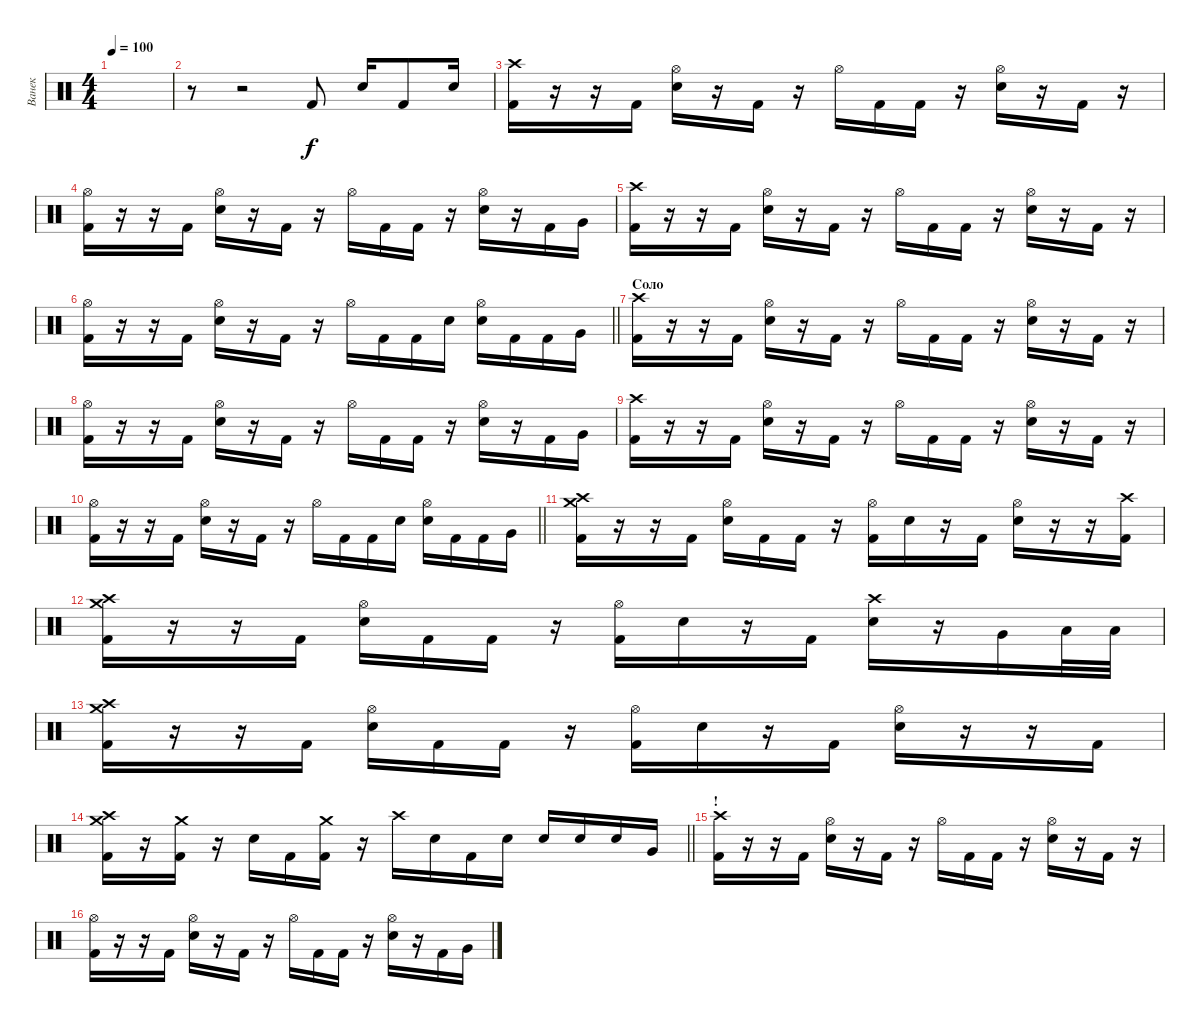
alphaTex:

\track ("Ванек" "Ванек") {instrument percussion}
\staff {score}
\articulation defaults
\ts (4 4)
\tempo 100
\clef neutral
\ks c
|
r.8 r.2 "Kick (hit) 2".8 "Snare (hit) 2".16 "Kick (hit) 2".8 "Snare (hit) 2".16 |
("Crash high (hit)" "Kick (hit) 2").16 r.16 r.16 "Kick (hit) 2".16 ("Hi-Hat (open)" "Snare (hit) 2").16 r.16 "Kick (hit) 2".16 r.16 "Hi-Hat (open)".16 "Kick (hit) 2".16 "Kick (hit) 2".16 r.16 ("Hi-Hat (open)" "Snare (hit) 2").16 r.16 "Kick (hit) 2".16 r.16 |
("Hi-Hat (open)" "Kick (hit) 2").16 r.16 r.16 "Kick (hit) 2".16 ("Hi-Hat (open)" "Snare (hit) 2").16 r.16 "Kick (hit) 2".16 r.16 "Hi-Hat (open)".16 "Kick (hit) 2".16 "Kick (hit) 2".16 r.16 ("Hi-Hat (open)" "Snare (hit) 2").16 r.16 "Kick (hit) 2".16 "Very Low Tom (hit)".16 |
("Crash high (hit)" "Kick (hit) 2").16 r.16 r.16 "Kick (hit) 2".16 ("Hi-Hat (open)" "Snare (hit) 2").16 r.16 "Kick (hit) 2".16 r.16 "Hi-Hat (open)".16 "Kick (hit) 2".16 "Kick (hit) 2".16 r.16 ("Hi-Hat (open)" "Snare (hit) 2").16 r.16 "Kick (hit) 2".16 r.16 |
\barLineRight lightlight
("Hi-Hat (open)" "Kick (hit) 2").16 r.16 r.16 "Kick (hit) 2".16 ("Hi-Hat (open)" "Snare (hit) 2").16 r.16 "Kick (hit) 2".16 r.16 "Hi-Hat (open)".16 "Kick (hit) 2".16 "Kick (hit) 2".16 "Snare (hit) 2".16 ("Hi-Hat (open)" "Snare (hit) 2").16 "Kick (hit) 2".16 "Kick (hit) 2".16 "Very Low Tom (hit)".16 |
\section ("" "Соло")
("Crash high (hit)" "Kick (hit) 2").16 r.16 r.16 "Kick (hit) 2".16 ("Hi-Hat (open)" "Snare (hit) 2").16 r.16 "Kick (hit) 2".16 r.16 "Hi-Hat (open)".16 "Kick (hit) 2".16 "Kick (hit) 2".16 r.16 ("Hi-Hat (open)" "Snare (hit) 2").16 r.16 "Kick (hit) 2".16 r.16 |
("Hi-Hat (open)" "Kick (hit) 2").16 r.16 r.16 "Kick (hit) 2".16 ("Hi-Hat (open)" "Snare (hit) 2").16 r.16 "Kick (hit) 2".16 r.16 "Hi-Hat (open)".16 "Kick (hit) 2".16 "Kick (hit) 2".16 r.16 ("Hi-Hat (open)" "Snare (hit) 2").16 r.16 "Kick (hit) 2".16 "Very Low Tom (hit)".16 |
("Crash high (hit)" "Kick (hit) 2").16 r.16 r.16 "Kick (hit) 2".16 ("Hi-Hat (open)" "Snare (hit) 2").16 r.16 "Kick (hit) 2".16 r.16 "Hi-Hat (open)".16 "Kick (hit) 2".16 "Kick (hit) 2".16 r.16 ("Hi-Hat (open)" "Snare (hit) 2").16 r.16 "Kick (hit) 2".16 r.16 |
\barLineRight lightlight
("Hi-Hat (open)" "Kick (hit) 2").16 r.16 r.16 "Kick (hit) 2".16 ("Hi-Hat (open)" "Snare (hit) 2").16 r.16 "Kick (hit) 2".16 r.16 "Hi-Hat (open)".16 "Kick (hit) 2".16 "Kick (hit) 2".16 "Snare (hit) 2".16 ("Hi-Hat (open)" "Snare (hit) 2").16 "Kick (hit) 2".16 "Kick (hit) 2".16 "Very Low Tom (hit)".16 |
("Crash high (hit)" "Crash medium (hit)" "Kick (hit) 2").16 r.16 r.16 "Kick (hit) 2".16 ("Hi-Hat (open)" "Snare (hit) 2").16 "Kick (hit) 2".16 "Kick (hit) 2".16 r.16 ("Hi-Hat (open)" "Kick (hit) 2").16 "Snare (hit) 2".16 r.16 "Kick (hit) 2".16 ("Hi-Hat (open)" "Snare (hit) 2").16 r.16 r.16 ("Crash high (hit)" "Kick (hit) 2").16 |
("Crash high (hit)" "Crash medium (hit)" "Kick (hit) 2").16 r.16 r.16 "Kick (hit) 2".16 ("Hi-Hat (open)" "Snare (hit) 2").16 "Kick (hit) 2".16 "Kick (hit) 2".16 r.16 ("Hi-Hat (open)" "Kick (hit) 2").16 "Snare (hit) 2".16 r.16 "Kick (hit) 2".16 ("Crash high (hit)" "Snare (hit) 2").16 r.16 "Very Low Tom (hit)".16 "Low Floor Tom (hit)".32 "Low Floor Tom (hit)".32 |
("Crash high (hit)" "Crash medium (hit)" "Kick (hit) 2").16 r.16 r.16 "Kick (hit) 2".16 ("Hi-Hat (open)" "Snare (hit) 2").16 "Kick (hit) 2".16 "Kick (hit) 2".16 r.16 ("Hi-Hat (open)" "Kick (hit) 2").16 "Snare (hit) 2".16 r.16 "Kick (hit) 2".16 ("Hi-Hat (open)" "Snare (hit) 2").16 r.16 r.16 "Kick (hit) 2".16 |
\barLineRight lightlight
("Crash high (hit)" "Crash medium (hit)" "Kick (hit) 2").16 r.16 ("Crash medium (hit)" "Kick (hit) 2").16 r.16 "Snare (hit) 2".16 "Kick (hit) 2".16 ("Crash medium (hit)" "Kick (hit) 2").16 r.16 "Crash high (hit)".16 "Snare (hit) 2".16 "Kick (hit) 2".16 "Snare (hit) 2".16 "Snare (hit) 2".16 "Snare (hit) 2".16 "Snare (hit) 2".16 "Very Low Tom (hit)".16 |
\section ("" "!")
("Crash high (hit)" "Kick (hit) 2").16 r.16 r.16 "Kick (hit) 2".16 ("Hi-Hat (open)" "Snare (hit) 2").16 r.16 "Kick (hit) 2".16 r.16 "Hi-Hat (open)".16 "Kick (hit) 2".16 "Kick (hit) 2".16 r.16 ("Hi-Hat (open)" "Snare (hit) 2").16 r.16 "Kick (hit) 2".16 r.16 |
("Hi-Hat (open)" "Kick (hit) 2").16 r.16 r.16 "Kick (hit) 2".16 ("Hi-Hat (open)" "Snare (hit) 2").16 r.16 "Kick (hit) 2".16 r.16 "Hi-Hat (open)".16 "Kick (hit) 2".16 "Kick (hit) 2".16 r.16 ("Hi-Hat (open)" "Snare (hit) 2").16 r.16 "Kick (hit) 2".16 "Very Low Tom (hit)".16
